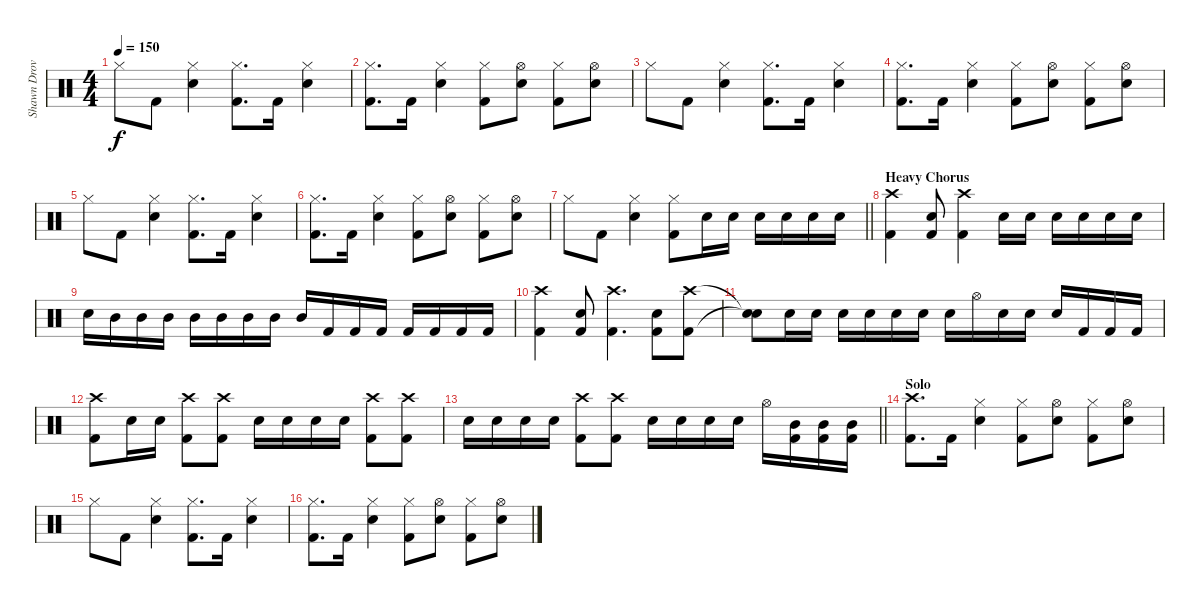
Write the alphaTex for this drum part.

\track ("Shawn Drover" "Shawn Drov") {instrument percussion}
\staff {score}
\articulation defaults
\ts (4 4)
\tempo 150
\clef neutral
\ks c "Hi-Hat (closed)".8{dy f} "Kick (hit) 2".8
("Hi-Hat (closed)" "Snare (hit) 2").4 ("Hi-Hat (closed)" "Kick (hit) 2").8{d} "Kick (hit) 2".16 ("Hi-Hat (closed)" "Snare (hit) 2").4 |
("Hi-Hat (closed)" "Kick (hit) 2").8{d} "Kick (hit) 2".16 ("Hi-Hat (closed)" "Snare (hit) 2").4 ("Hi-Hat (closed)" "Kick (hit) 2").8 ("Hi-Hat (open)" "Snare (hit) 2").8 ("Hi-Hat (closed)" "Kick (hit) 2").8 ("Hi-Hat (open)" "Snare (hit) 2").8 |
"Hi-Hat (closed)".8 "Kick (hit) 2".8 ("Hi-Hat (closed)" "Snare (hit) 2").4 ("Hi-Hat (closed)" "Kick (hit) 2").8{d} "Kick (hit) 2".16 ("Hi-Hat (closed)" "Snare (hit) 2").4 |
("Hi-Hat (closed)" "Kick (hit) 2").8{d} "Kick (hit) 2".16 ("Hi-Hat (closed)" "Snare (hit) 2").4 ("Hi-Hat (closed)" "Kick (hit) 2").8 ("Hi-Hat (open)" "Snare (hit) 2").8 ("Hi-Hat (closed)" "Kick (hit) 2").8 ("Hi-Hat (open)" "Snare (hit) 2").8 |
"Hi-Hat (closed)".8 "Kick (hit) 2".8 ("Hi-Hat (closed)" "Snare (hit) 2").4 ("Hi-Hat (closed)" "Kick (hit) 2").8{d} "Kick (hit) 2".16 ("Hi-Hat (closed)" "Snare (hit) 2").4 |
("Hi-Hat (closed)" "Kick (hit) 2").8{d} "Kick (hit) 2".16 ("Hi-Hat (closed)" "Snare (hit) 2").4 ("Hi-Hat (closed)" "Kick (hit) 2").8 ("Hi-Hat (open)" "Snare (hit) 2").8 ("Hi-Hat (closed)" "Kick (hit) 2").8 ("Hi-Hat (open)" "Snare (hit) 2").8 |
\barLineRight lightlight "Hi-Hat (closed)".8 "Kick (hit) 2".8
("Hi-Hat (closed)" "Snare (hit) 2").4 ("Hi-Hat (closed)" "Kick (hit) 2").8 "Snare (hit) 2".16 "Snare (hit) 2".16 "Snare (hit) 2".16 "Snare (hit) 2".16 "Snare (hit) 2".16 "Snare (hit) 2".16 |
\section ("" "Heavy Chorus")
("Crash high (hit)" "Kick (hit) 2").4 ("Snare (hit) 2" "Kick (hit) 2").8 ("Crash high (hit)" "Kick (hit) 2").4 "Snare (hit) 2".16 "Snare (hit) 2".16 "Snare (hit) 2".16 "Snare (hit) 2".16 "Snare (hit) 2".16 "Snare (hit) 2".16 |
"Snare (hit) 2".16 "Mid Tom (hit)".16 "Mid Tom (hit)".16 "Mid Tom (hit)".16 "Mid Tom (hit)".16 "Mid Tom (hit)".16 "Mid Tom (hit)".16 "Mid Tom (hit)".16 "Mid Tom (hit)".16 "Kick (hit) 2".16 "Kick (hit) 2".16 "Kick (hit) 2".16 "Kick (hit) 2".16 "Kick (hit) 2".16 "Kick (hit) 2".16 "Kick (hit) 2".16 |
("Crash high (hit)" "Kick (hit) 2").4 ("Snare (hit) 2" "Kick (hit) 2").8 ("Crash high (hit)" "Kick (hit) 2").4{d} ("Snare (hit) 2" "Kick (hit) 2").8 ("Crash high (hit)" "Kick (hit) 2").8 |
("Snare (hit)"{t} "Snare (hit)"{t}).8 "Snare (hit) 2".16 "Snare (hit) 2".16 "Snare (hit) 2".16 "Snare (hit) 2".16 "Snare (hit) 2".16 "Snare (hit) 2".16 "Snare (hit) 2".16 "Hi-Hat (open)".16 "Snare (hit) 2".16 "Snare (hit) 2".16 "Snare (hit) 2".16 "Kick (hit) 2".16 "Kick (hit) 2".16 "Kick (hit) 2".16 |
("Crash high (hit)" "Kick (hit) 2").8 "Snare (hit) 2".16 "Snare (hit) 2".16 ("Crash high (hit)" "Kick (hit) 2").8 ("Crash high (hit)" "Kick (hit) 2").8 "Snare (hit) 2".16 "Snare (hit) 2".16 "Snare (hit) 2".16 "Snare (hit) 2".16 ("Crash high (hit)" "Kick (hit) 2").8 ("Crash high (hit)" "Kick (hit) 2").8 |
\barLineRight lightlight "Snare (hit) 2".16 "Snare (hit) 2".16 "Snare (hit) 2".16 "Snare (hit) 2".16
("Crash high (hit)" "Kick (hit) 2").8 ("Crash high (hit)" "Kick (hit) 2").8 "Snare (hit) 2".16 "Snare (hit) 2".16 "Snare (hit) 2".16 "Snare (hit) 2".16 "Hi-Hat (open)".16 ("Mid Tom (hit)" "Kick (hit) 2").16 ("Mid Tom (hit)" "Kick (hit) 2").16 ("Mid Tom (hit)" "Kick (hit) 2").16 |
\section ("" "Solo")
("Crash high (hit)" "Kick (hit) 2").8{d} "Kick (hit) 2".16 ("Hi-Hat (closed)" "Snare (hit) 2").4 ("Hi-Hat (closed)" "Kick (hit) 2").8 ("Hi-Hat (open)" "Snare (hit) 2").8 ("Hi-Hat (closed)" "Kick (hit) 2").8 ("Hi-Hat (open)" "Snare (hit) 2").8 |
"Hi-Hat (closed)".8 "Kick (hit) 2".8 ("Hi-Hat (closed)" "Snare (hit) 2").4 ("Hi-Hat (closed)" "Kick (hit) 2").8{d} "Kick (hit) 2".16 ("Hi-Hat (closed)" "Snare (hit) 2").4 |
("Hi-Hat (closed)" "Kick (hit) 2").8{d} "Kick (hit) 2".16 ("Hi-Hat (closed)" "Snare (hit) 2").4 ("Hi-Hat (closed)" "Kick (hit) 2").8 ("Hi-Hat (open)" "Snare (hit) 2").8 ("Hi-Hat (closed)" "Kick (hit) 2").8 ("Hi-Hat (open)" "Snare (hit) 2").8
